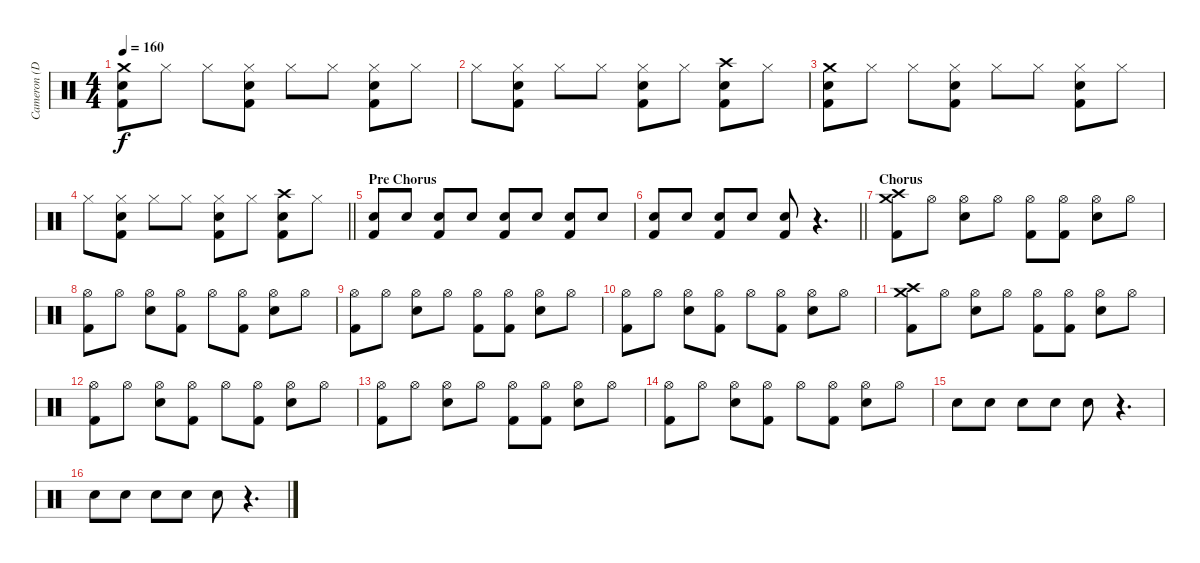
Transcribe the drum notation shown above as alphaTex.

\track ("Cameron (Drums)" "Cameron (D") {instrument percussion}
\staff {score}
\articulation defaults
\ts (4 4)
\tempo 160
\clef neutral
\ks c
("Crash medium (hit)" "Snare (hit) 2" "Kick (hit) 2").8{dy f} "Hi-Hat (closed)".8 "Hi-Hat (closed)".8 ("Hi-Hat (closed)" "Snare (hit) 2" "Kick (hit) 2").8 "Hi-Hat (closed)".8 "Hi-Hat (closed)".8 ("Hi-Hat (closed)" "Snare (hit) 2" "Kick (hit) 2").8 "Hi-Hat (closed)".8 |
"Hi-Hat (closed)".8 ("Hi-Hat (closed)" "Snare (hit) 2" "Kick (hit) 2").8 "Hi-Hat (closed)".8 "Hi-Hat (closed)".8 ("Hi-Hat (closed)" "Snare (hit) 2" "Kick (hit) 2").8 "Hi-Hat (closed)".8 ("Crash high (hit)" "Snare (hit) 2" "Kick (hit) 2").8 "Hi-Hat (closed)".8 |
("Crash medium (hit)" "Snare (hit) 2" "Kick (hit) 2").8 "Hi-Hat (closed)".8 "Hi-Hat (closed)".8 ("Hi-Hat (closed)" "Snare (hit) 2" "Kick (hit) 2").8 "Hi-Hat (closed)".8 "Hi-Hat (closed)".8 ("Hi-Hat (closed)" "Snare (hit) 2" "Kick (hit) 2").8 "Hi-Hat (closed)".8 |
\barLineRight lightlight "Hi-Hat (closed)".8
("Hi-Hat (closed)" "Snare (hit) 2" "Kick (hit) 2").8 "Hi-Hat (closed)".8 "Hi-Hat (closed)".8 ("Hi-Hat (closed)" "Snare (hit) 2" "Kick (hit) 2").8 "Hi-Hat (closed)".8 ("Crash high (hit)" "Snare (hit) 2" "Kick (hit) 2").8 "Hi-Hat (closed)".8 |
\section ("" "Pre Chorus")
("Snare (hit) 2" "Kick (hit) 2").8 "Snare (hit) 2".8 ("Snare (hit) 2" "Kick (hit) 2").8 "Snare (hit) 2".8 ("Snare (hit) 2" "Kick (hit) 2").8 "Snare (hit) 2".8 ("Snare (hit) 2" "Kick (hit) 2").8 "Snare (hit) 2".8 |
\barLineRight lightlight
("Snare (hit) 2" "Kick (hit) 2").8 "Snare (hit) 2".8 ("Snare (hit) 2" "Kick (hit) 2").8 "Snare (hit) 2".8 ("Snare (hit) 2" "Kick (hit) 2").8 r.4{d} |
\section ("" "Chorus")
("Crash medium (hit)" "Crash high (hit)" "Kick (hit) 2").8 "Hi-Hat (open)".8 ("Hi-Hat (open)" "Snare (hit) 2").8 "Hi-Hat (open)".8 ("Hi-Hat (open)" "Kick (hit) 2").8 ("Hi-Hat (open)" "Kick (hit) 2").8 ("Hi-Hat (open)" "Snare (hit) 2").8 "Hi-Hat (open)".8 |
("Hi-Hat (open)" "Kick (hit) 2").8 "Hi-Hat (open)".8 ("Hi-Hat (open)" "Snare (hit) 2").8 ("Hi-Hat (open)" "Kick (hit) 2").8 "Hi-Hat (open)".8 ("Hi-Hat (open)" "Kick (hit) 2").8 ("Hi-Hat (open)" "Snare (hit) 2").8 "Hi-Hat (open)".8 |
("Hi-Hat (open)" "Kick (hit) 2").8 "Hi-Hat (open)".8 ("Hi-Hat (open)" "Snare (hit) 2").8 "Hi-Hat (open)".8 ("Hi-Hat (open)" "Kick (hit) 2").8 ("Hi-Hat (open)" "Kick (hit) 2").8 ("Hi-Hat (open)" "Snare (hit) 2").8 "Hi-Hat (open)".8 |
("Hi-Hat (open)" "Kick (hit) 2").8 "Hi-Hat (open)".8 ("Hi-Hat (open)" "Snare (hit) 2").8 ("Hi-Hat (open)" "Kick (hit) 2").8 "Hi-Hat (open)".8 ("Hi-Hat (open)" "Kick (hit) 2").8 ("Hi-Hat (open)" "Snare (hit) 2").8 "Hi-Hat (open)".8 |
("Crash medium (hit)" "Crash high (hit)" "Kick (hit) 2").8 "Hi-Hat (open)".8 ("Hi-Hat (open)" "Snare (hit) 2").8 "Hi-Hat (open)".8 ("Hi-Hat (open)" "Kick (hit) 2").8 ("Hi-Hat (open)" "Kick (hit) 2").8 ("Hi-Hat (open)" "Snare (hit) 2").8 "Hi-Hat (open)".8 |
("Hi-Hat (open)" "Kick (hit) 2").8 "Hi-Hat (open)".8 ("Hi-Hat (open)" "Snare (hit) 2").8 ("Hi-Hat (open)" "Kick (hit) 2").8 "Hi-Hat (open)".8 ("Hi-Hat (open)" "Kick (hit) 2").8 ("Hi-Hat (open)" "Snare (hit) 2").8 "Hi-Hat (open)".8 |
("Hi-Hat (open)" "Kick (hit) 2").8 "Hi-Hat (open)".8 ("Hi-Hat (open)" "Snare (hit) 2").8 "Hi-Hat (open)".8 ("Hi-Hat (open)" "Kick (hit) 2").8 ("Hi-Hat (open)" "Kick (hit) 2").8 ("Hi-Hat (open)" "Snare (hit) 2").8 "Hi-Hat (open)".8 |
("Hi-Hat (open)" "Kick (hit) 2").8 "Hi-Hat (open)".8 ("Hi-Hat (open)" "Snare (hit) 2").8 ("Hi-Hat (open)" "Kick (hit) 2").8 "Hi-Hat (open)".8 ("Hi-Hat (open)" "Kick (hit) 2").8 ("Hi-Hat (open)" "Snare (hit) 2").8 "Hi-Hat (open)".8 |
"Snare (hit) 2".8 "Snare (hit) 2".8 "Snare (hit) 2".8 "Snare (hit) 2".8 "Snare (hit) 2".8 r.4{d} |
"Snare (hit) 2".8 "Snare (hit) 2".8 "Snare (hit) 2".8 "Snare (hit) 2".8 "Snare (hit) 2".8 r.4{d}
